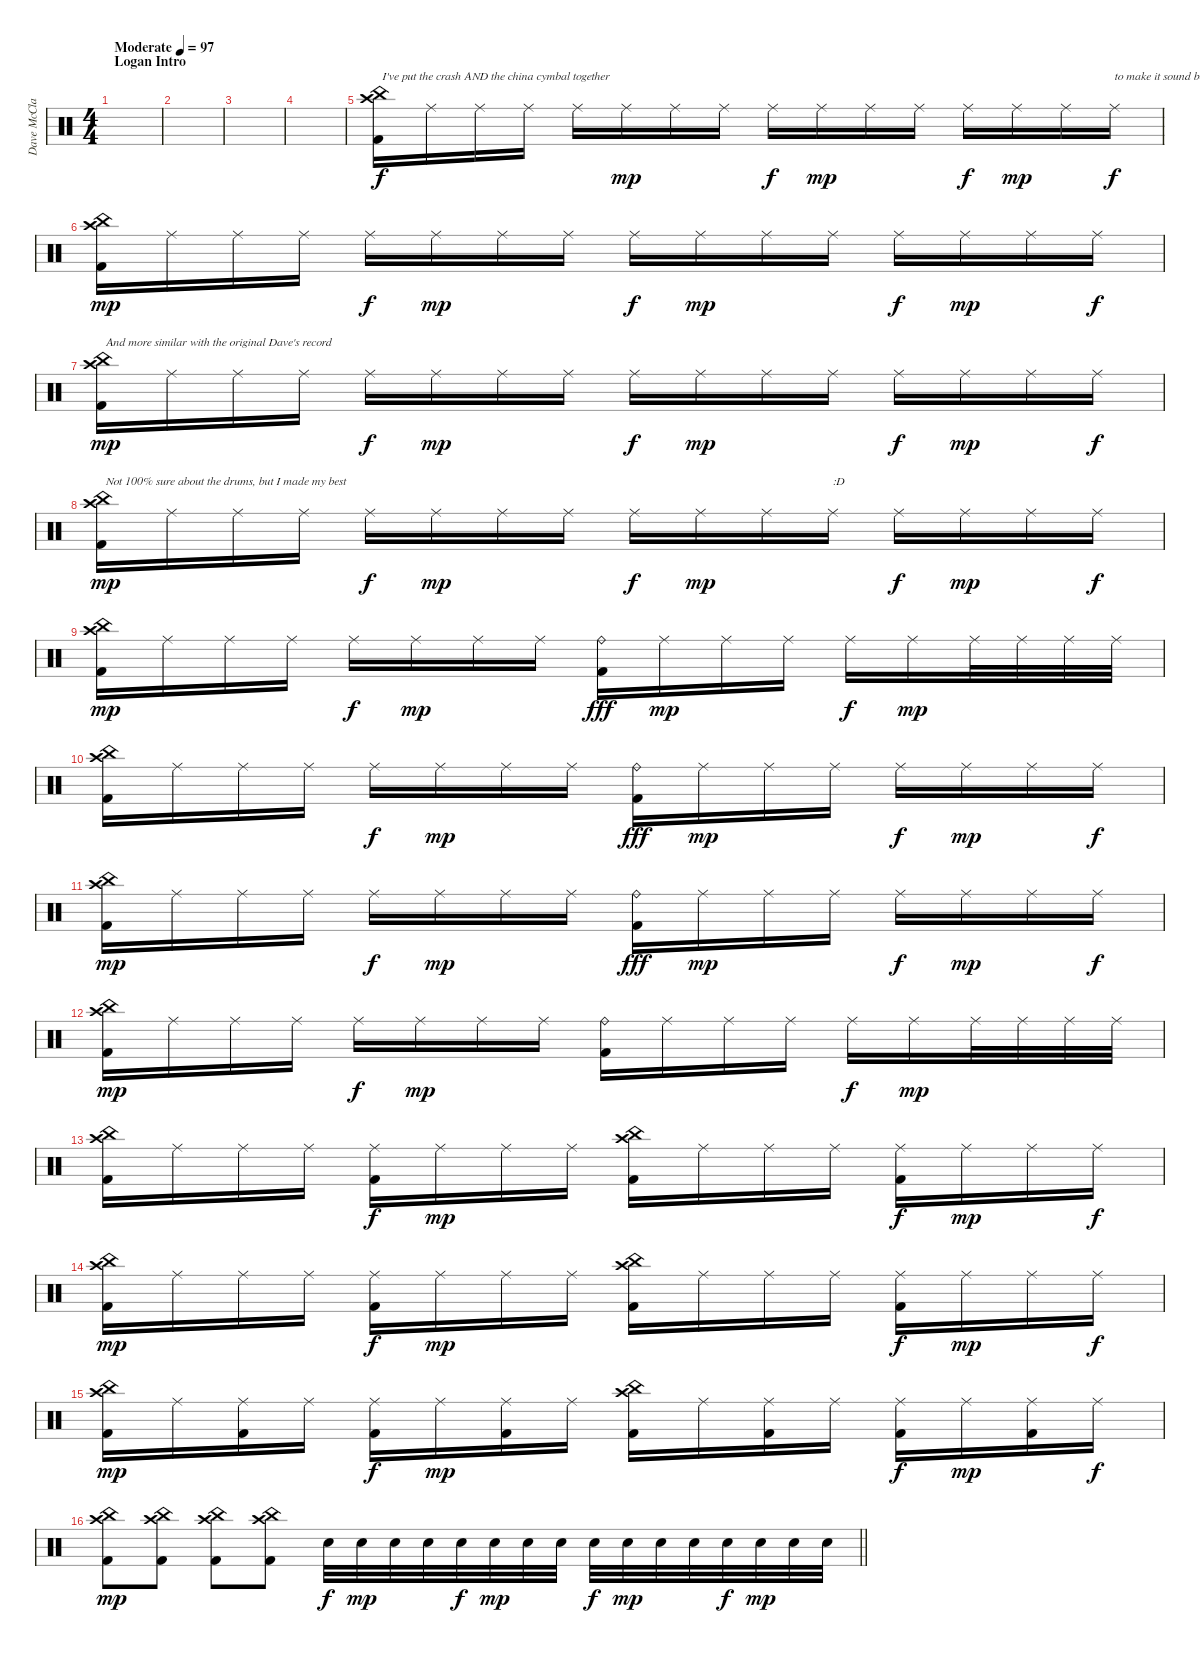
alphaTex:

\track ("Dave McClain" "Dave McCla") {instrument percussion}
\staff {score}
\articulation defaults
\ts (4 4)
\section ("" "Logan Intro")
\tempo (97 "Moderate")
\clef neutral
\ks c
|
|
|
|
("China (hit)" "Crash high (hit)" "Kick (hit) 2").16{txt "I've put the crash AND the china cymbal together "} "Ride (middle)".16 "Ride (middle)".16 "Ride (middle)".16 "Ride (middle)".16{dy f} "Ride (middle)".16{dy mp} "Ride (middle)".16 "Ride (middle)".16 "Ride (middle)".16{dy f} "Ride (middle)".16{dy mp} "Ride (middle)".16 "Ride (middle)".16 "Ride (middle)".16{dy f} "Ride (middle)".16{dy mp} "Ride (middle)".16 "Ride (middle)".16{txt "to make it sound better" dy f} |
("China (hit)" "Crash high (hit)" "Kick (hit) 2").16{dy mp} "Ride (middle)".16 "Ride (middle)".16 "Ride (middle)".16 "Ride (middle)".16{dy f} "Ride (middle)".16{dy mp} "Ride (middle)".16 "Ride (middle)".16 "Ride (middle)".16{dy f} "Ride (middle)".16{dy mp} "Ride (middle)".16 "Ride (middle)".16 "Ride (middle)".16{dy f} "Ride (middle)".16{dy mp} "Ride (middle)".16 "Ride (middle)".16{dy f} |
("China (hit)" "Crash high (hit)" "Kick (hit) 2").16{txt "And more similar with the original Dave's record" dy mp} "Ride (middle)".16 "Ride (middle)".16 "Ride (middle)".16 "Ride (middle)".16{dy f} "Ride (middle)".16{dy mp} "Ride (middle)".16 "Ride (middle)".16 "Ride (middle)".16{dy f} "Ride (middle)".16{dy mp} "Ride (middle)".16 "Ride (middle)".16 "Ride (middle)".16{dy f} "Ride (middle)".16{dy mp} "Ride (middle)".16 "Ride (middle)".16{dy f} |
("China (hit)" "Crash high (hit)" "Kick (hit) 2").16{txt "Not 100% sure about the drums, but I made my best" dy mp} "Ride (middle)".16 "Ride (middle)".16 "Ride (middle)".16 "Ride (middle)".16{dy f} "Ride (middle)".16{dy mp} "Ride (middle)".16 "Ride (middle)".16 "Ride (middle)".16{dy f} "Ride (middle)".16{dy mp} "Ride (middle)".16 "Ride (middle)".16{txt ":D"} "Ride (middle)".16{dy f} "Ride (middle)".16{dy mp} "Ride (middle)".16 "Ride (middle)".16{dy f} |
("China (hit)" "Crash high (hit)" "Kick (hit) 2").16{dy mp} "Ride (middle)".16 "Ride (middle)".16 "Ride (middle)".16 "Ride (middle)".16{dy f} "Ride (middle)".16{dy mp} "Ride (middle)".16 "Ride (middle)".16 ("Ride (bell)" "Kick (hit) 2").16{dy fff} "Ride (middle)".16{dy mp} "Ride (middle)".16 "Ride (middle)".16 "Ride (middle)".16{dy f} "Ride (middle)".16{dy mp} "Ride (middle)".32 "Ride (middle)".32 "Ride (middle)".32 "Ride (middle)".32 |
("China (hit)" "Crash high (hit)" "Kick (hit) 2").16 "Ride (middle)".16 "Ride (middle)".16 "Ride (middle)".16 "Ride (middle)".16{dy f} "Ride (middle)".16{dy mp} "Ride (middle)".16 "Ride (middle)".16 ("Ride (bell)" "Kick (hit) 2").16{dy fff} "Ride (middle)".16{dy mp} "Ride (middle)".16 "Ride (middle)".16 "Ride (middle)".16{dy f} "Ride (middle)".16{dy mp} "Ride (middle)".16 "Ride (middle)".16{dy f} |
("China (hit)" "Crash high (hit)" "Kick (hit) 2").16{dy mp} "Ride (middle)".16 "Ride (middle)".16 "Ride (middle)".16 "Ride (middle)".16{dy f} "Ride (middle)".16{dy mp} "Ride (middle)".16 "Ride (middle)".16 ("Ride (bell)" "Kick (hit) 2").16{dy fff} "Ride (middle)".16{dy mp} "Ride (middle)".16 "Ride (middle)".16 "Ride (middle)".16{dy f} "Ride (middle)".16{dy mp} "Ride (middle)".16 "Ride (middle)".16{dy f} |
("China (hit)" "Crash high (hit)" "Kick (hit) 2").16{dy mp} "Ride (middle)".16 "Ride (middle)".16 "Ride (middle)".16 "Ride (middle)".16{dy f} "Ride (middle)".16{dy mp} "Ride (middle)".16 "Ride (middle)".16 ("Ride (bell)" "Kick (hit) 2").16 "Ride (middle)".16 "Ride (middle)".16 "Ride (middle)".16 "Ride (middle)".16{dy f} "Ride (middle)".16{dy mp} "Ride (middle)".32 "Ride (middle)".32 "Ride (middle)".32 "Ride (middle)".32 |
("China (hit)" "Crash high (hit)" "Kick (hit) 2").16 "Ride (middle)".16 "Ride (middle)".16 "Ride (middle)".16 ("Ride (middle)" "Kick (hit) 2").16{dy f} "Ride (middle)".16{dy mp} "Ride (middle)".16 "Ride (middle)".16 ("China (hit)" "Crash high (hit)" "Kick (hit) 2").16 "Ride (middle)".16 "Ride (middle)".16 "Ride (middle)".16 ("Ride (middle)" "Kick (hit) 2").16{dy f} "Ride (middle)".16{dy mp} "Ride (middle)".16 "Ride (middle)".16{dy f} |
("China (hit)" "Crash high (hit)" "Kick (hit) 2").16{dy mp} "Ride (middle)".16 "Ride (middle)".16 "Ride (middle)".16 ("Ride (middle)" "Kick (hit) 2").16{dy f} "Ride (middle)".16{dy mp} "Ride (middle)".16 "Ride (middle)".16 ("China (hit)" "Crash high (hit)" "Kick (hit) 2").16 "Ride (middle)".16 "Ride (middle)".16 "Ride (middle)".16 ("Ride (middle)" "Kick (hit) 2").16{dy f} "Ride (middle)".16{dy mp} "Ride (middle)".16 "Ride (middle)".16{dy f} |
("China (hit)" "Crash high (hit)" "Kick (hit) 2").16{dy mp} "Ride (middle)".16 ("Ride (middle)" "Kick (hit) 2").16 "Ride (middle)".16 ("Ride (middle)" "Kick (hit) 2").16{dy f} "Ride (middle)".16{dy mp} ("Ride (middle)" "Kick (hit) 2").16 "Ride (middle)".16 ("China (hit)" "Crash high (hit)" "Kick (hit) 2").16 "Ride (middle)".16 ("Ride (middle)" "Kick (hit) 2").16 "Ride (middle)".16 ("Ride (middle)" "Kick (hit) 2").16{dy f} "Ride (middle)".16{dy mp} ("Ride (middle)" "Kick (hit) 2").16 "Ride (middle)".16{dy f} |
\barLineRight lightlight
("China (hit)" "Crash high (hit)" "Kick (hit) 2").8{dy mp} ("China (hit)" "Crash high (hit)" "Kick (hit) 2").8 ("China (hit)" "Crash high (hit)" "Kick (hit) 2").8 ("China (hit)" "Crash high (hit)" "Kick (hit) 2").8 "Snare (hit) 2".32{dy f} "Snare (hit) 2".32{dy mp} "Snare (hit) 2".32 "Snare (hit) 2".32 "Snare (hit) 2".32{dy f} "Snare (hit) 2".32{dy mp} "Snare (hit) 2".32 "Snare (hit) 2".32 "Snare (hit) 2".32{dy f} "Snare (hit) 2".32{dy mp} "Snare (hit) 2".32 "Snare (hit) 2".32 "Snare (hit) 2".32{dy f} "Snare (hit) 2".32{dy mp} "Snare (hit) 2".32 "Snare (hit) 2".32
